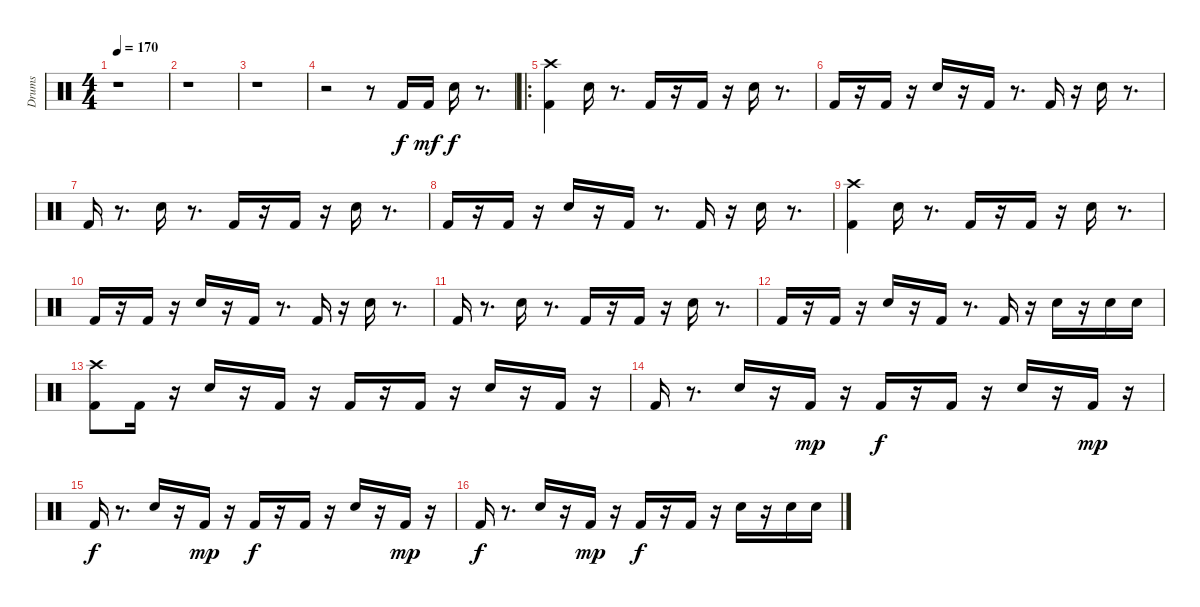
\track ("Drums" "Drums") {instrument percussion}
\staff {score}
\articulation defaults
\ts (4 4)
\tempo 170
\clef neutral
\ks c
r.1{dy f} |
r.1 |
r.1 |
r.2 r.8 "Kick (hit) 2".16 "Kick (hit) 2".16{dy mf} "Electric Snare (hit)".16{dy f} r.8{d} |
\ro
("Crash high (hit)" "Kick (hit) 2").4 "Electric Snare (hit)".16 r.8{d} "Kick (hit) 2".16 r.16 "Kick (hit) 2".16 r.16 "Electric Snare (hit)".16 r.8{d} |
"Kick (hit) 2".16 r.16 "Kick (hit) 2".16 r.16 "Electric Snare (hit)".16 r.16 "Kick (hit) 2".16 r.8{d} "Kick (hit) 2".16 r.16 "Electric Snare (hit)".16 r.8{d} |
"Kick (hit) 2".16 r.8{d} "Electric Snare (hit)".16 r.8{d} "Kick (hit) 2".16 r.16 "Kick (hit) 2".16 r.16 "Electric Snare (hit)".16 r.8{d} |
"Kick (hit) 2".16 r.16 "Kick (hit) 2".16 r.16 "Electric Snare (hit)".16 r.16 "Kick (hit) 2".16 r.8{d} "Kick (hit) 2".16 r.16 "Electric Snare (hit)".16 r.8{d} |
("Crash high (hit)" "Kick (hit) 2").4 "Electric Snare (hit)".16 r.8{d} "Kick (hit) 2".16 r.16 "Kick (hit) 2".16 r.16 "Electric Snare (hit)".16 r.8{d} |
"Kick (hit) 2".16 r.16 "Kick (hit) 2".16 r.16 "Electric Snare (hit)".16 r.16 "Kick (hit) 2".16 r.8{d} "Kick (hit) 2".16 r.16 "Electric Snare (hit)".16 r.8{d} |
"Kick (hit) 2".16 r.8{d} "Electric Snare (hit)".16 r.8{d} "Kick (hit) 2".16 r.16 "Kick (hit) 2".16 r.16 "Electric Snare (hit)".16 r.8{d} |
"Kick (hit) 2".16 r.16 "Kick (hit) 2".16 r.16 "Electric Snare (hit)".16 r.16 "Kick (hit) 2".16 r.8{d} "Kick (hit) 2".16 r.16 "Electric Snare (hit)".16 r.16 "Electric Snare (hit)".16 "Electric Snare (hit)".16 |
("Crash high (hit)" "Kick (hit) 2").8 "Kick (hit) 2".16 r.16 "Electric Snare (hit)".16 r.16 "Kick (hit) 2".16 r.16 "Kick (hit) 2".16 r.16 "Kick (hit) 2".16 r.16 "Electric Snare (hit)".16 r.16 "Kick (hit) 2".16 r.16 |
"Kick (hit) 2".16 r.8{d} "Electric Snare (hit)".16 r.16 "Kick (hit) 2".16{dy mp} r.16 "Kick (hit) 2".16{dy f} r.16 "Kick (hit) 2".16 r.16 "Electric Snare (hit)".16 r.16 "Kick (hit) 2".16{dy mp} r.16 |
"Kick (hit) 2".16{dy f} r.8{d} "Electric Snare (hit)".16 r.16 "Kick (hit) 2".16{dy mp} r.16 "Kick (hit) 2".16{dy f} r.16 "Kick (hit) 2".16 r.16 "Electric Snare (hit)".16 r.16 "Kick (hit) 2".16{dy mp} r.16 |
"Kick (hit) 2".16{dy f} r.8{d} "Electric Snare (hit)".16 r.16 "Kick (hit) 2".16{dy mp} r.16 "Kick (hit) 2".16{dy f} r.16 "Kick (hit) 2".16 r.16 "Electric Snare (hit)".16 r.16 "Electric Snare (hit)".16 "Electric Snare (hit)".16
